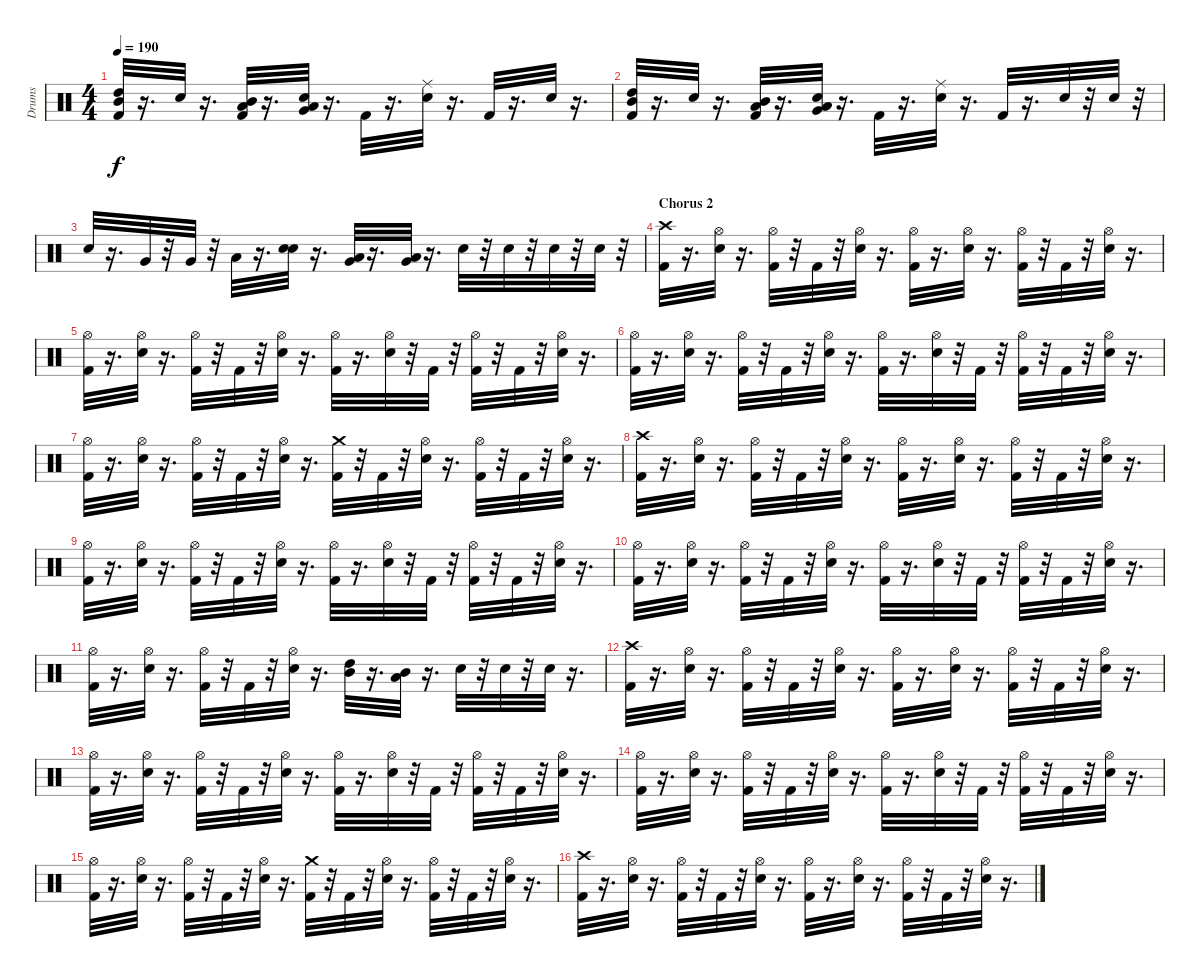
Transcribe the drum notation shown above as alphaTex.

\track ("Drums" "Drums") {instrument percussion}
\staff {score}
\articulation defaults
\ts (4 4)
\tempo 190
\clef neutral
\ks c
("Kick (hit) 2" "Mid Tom (hit)" "High Tom (hit)").32{dy f} r.16{d} "Snare (hit) 2".32 r.16{d} ("Mid Tom (hit)" "Low Tom (hit)" "Kick (hit) 2").32 r.16{d} ("Very Low Tom (hit)" "Low Tom (hit)" "Snare (hit) 2").32 r.16{d} "Kick (hit) 2".32 r.16{d} ("Snare (hit) 2" "Ride (middle)").32 r.16{d} "Kick (hit) 2".32 r.16{d} "Snare (hit) 2".32 r.16{d} |
("High Tom (hit)" "Kick (hit) 2" "Mid Tom (hit)").32 r.16{d} "Snare (hit) 2".32 r.16{d} ("Kick (hit) 2" "Low Tom (hit)" "Mid Tom (hit)").32 r.16{d} ("Snare (hit) 2" "Low Tom (hit)" "Very Low Tom (hit)").32 r.16{d} "Kick (hit) 2".32 r.16{d} ("Ride (middle)" "Snare (hit) 2").32 r.16{d} "Kick (hit) 2".32 r.16{d} "Snare (hit) 2".32 r.32 "Snare (hit) 2".32 r.32 |
"Snare (hit) 2".32 r.16{d} "Very Low Tom (hit)".32 r.32 "Very Low Tom (hit)".32 r.32 "Low Floor Tom (hit)".32 r.16{d} ("Electric Snare (hit)" "Snare (hit) 2").32 r.16{d} ("Very Low Tom (hit)" "Low Floor Tom (hit)").32 r.16{d} ("Very Low Tom (hit)" "Low Floor Tom (hit)").32 r.16{d} "Snare (hit) 2".32 r.32 "Snare (hit) 2".32 r.32 "Snare (hit) 2".32 r.32 "Snare (hit) 2".32 r.32 |
\section ("" "Chorus 2")
("Crash high (hit)" "Kick (hit) 2").32 r.16{d} ("Snare (hit) 2" "Hi-Hat (open)").32 r.16{d} ("Kick (hit) 2" "Hi-Hat (open)").32 r.32 "Kick (hit) 2".32 r.32 ("Hi-Hat (open)" "Snare (hit) 2").32 r.16{d} ("Hi-Hat (open)" "Kick (hit) 2").32 r.16{d} ("Hi-Hat (open)" "Snare (hit) 2").32 r.16{d} ("Hi-Hat (open)" "Kick (hit) 2").32 r.32 "Kick (hit) 2".32 r.32 ("Snare (hit) 2" "Hi-Hat (open)").32 r.16{d} |
("Kick (hit) 2" "Hi-Hat (open)").32 r.16{d} ("Hi-Hat (open)" "Snare (hit) 2").32 r.16{d} ("Kick (hit) 2" "Hi-Hat (open)").32 r.32 "Kick (hit) 2".32 r.32 ("Hi-Hat (open)" "Snare (hit) 2").32 r.16{d} ("Kick (hit) 2" "Hi-Hat (open)").32 r.16{d} ("Hi-Hat (open)" "Snare (hit) 2").32 r.32 "Kick (hit) 2".32 r.32 ("Hi-Hat (open)" "Kick (hit) 2").32 r.32 "Kick (hit) 2".32 r.32 ("Snare (hit) 2" "Hi-Hat (open)").32 r.16{d} |
("Hi-Hat (open)" "Kick (hit) 2").32 r.16{d} ("Snare (hit) 2" "Hi-Hat (open)").32 r.16{d} ("Kick (hit) 2" "Hi-Hat (open)").32 r.32 "Kick (hit) 2".32 r.32 ("Snare (hit) 2" "Hi-Hat (open)").32 r.16{d} ("Kick (hit) 2" "Hi-Hat (open)").32 r.16{d} ("Hi-Hat (open)" "Snare (hit) 2").32 r.32 "Kick (hit) 2".32 r.32 ("Hi-Hat (open)" "Kick (hit) 2").32 r.32 "Kick (hit) 2".32 r.32 ("Snare (hit) 2" "Hi-Hat (open)").32 r.16{d} |
("Kick (hit) 2" "Hi-Hat (open)").32 r.16{d} ("Snare (hit) 2" "Hi-Hat (open)").32 r.16{d} ("Hi-Hat (open)" "Kick (hit) 2").32 r.32 "Kick (hit) 2".32 r.32 ("Snare (hit) 2" "Hi-Hat (open)").32 r.16{d} ("Kick (hit) 2" "Crash medium (hit)").32 r.32 "Kick (hit) 2".32 r.32 ("Snare (hit) 2" "Hi-Hat (open)").32 r.16{d} ("Hi-Hat (open)" "Kick (hit) 2").32 r.32 "Kick (hit) 2".32 r.32 ("Snare (hit) 2" "Hi-Hat (open)").32 r.16{d} |
("Crash high (hit)" "Kick (hit) 2").32 r.16{d} ("Hi-Hat (open)" "Snare (hit) 2").32 r.16{d} ("Hi-Hat (open)" "Kick (hit) 2").32 r.32 "Kick (hit) 2".32 r.32 ("Hi-Hat (open)" "Snare (hit) 2").32 r.16{d} ("Kick (hit) 2" "Hi-Hat (open)").32 r.16{d} ("Snare (hit) 2" "Hi-Hat (open)").32 r.16{d} ("Hi-Hat (open)" "Kick (hit) 2").32 r.32 "Kick (hit) 2".32 r.32 ("Snare (hit) 2" "Hi-Hat (open)").32 r.16{d} |
("Hi-Hat (open)" "Kick (hit) 2").32 r.16{d} ("Snare (hit) 2" "Hi-Hat (open)").32 r.16{d} ("Kick (hit) 2" "Hi-Hat (open)").32 r.32 "Kick (hit) 2".32 r.32 ("Hi-Hat (open)" "Snare (hit) 2").32 r.16{d} ("Kick (hit) 2" "Hi-Hat (open)").32 r.16{d} ("Hi-Hat (open)" "Snare (hit) 2").32 r.32 "Kick (hit) 2".32 r.32 ("Kick (hit) 2" "Hi-Hat (open)").32 r.32 "Kick (hit) 2".32 r.32 ("Snare (hit) 2" "Hi-Hat (open)").32 r.16{d} |
("Kick (hit) 2" "Hi-Hat (open)").32 r.16{d} ("Snare (hit) 2" "Hi-Hat (open)").32 r.16{d} ("Hi-Hat (open)" "Kick (hit) 2").32 r.32 "Kick (hit) 2".32 r.32 ("Snare (hit) 2" "Hi-Hat (open)").32 r.16{d} ("Hi-Hat (open)" "Kick (hit) 2").32 r.16{d} ("Snare (hit) 2" "Hi-Hat (open)").32 r.32 "Kick (hit) 2".32 r.32 ("Hi-Hat (open)" "Kick (hit) 2").32 r.32 "Kick (hit) 2".32 r.32 ("Snare (hit) 2" "Hi-Hat (open)").32 r.16{d} |
("Hi-Hat (open)" "Kick (hit) 2").32 r.16{d} ("Snare (hit) 2" "Hi-Hat (open)").32 r.16{d} ("Hi-Hat (open)" "Kick (hit) 2").32 r.32 "Kick (hit) 2".32 r.32 ("Hi-Hat (open)" "Snare (hit) 2").32 r.16{d} ("Mid Tom (hit)" "High Tom (hit)").32 r.16{d} ("Low Tom (hit)" "Mid Tom (hit)").32 r.16{d} "Snare (hit) 2".32 r.32 "Snare (hit) 2".32 r.32 "Snare (hit) 2".32 r.16{d} |
("Crash high (hit)" "Kick (hit) 2").32 r.16{d} ("Snare (hit) 2" "Hi-Hat (open)").32 r.16{d} ("Hi-Hat (open)" "Kick (hit) 2").32 r.32 "Kick (hit) 2".32 r.32 ("Hi-Hat (open)" "Snare (hit) 2").32 r.16{d} ("Kick (hit) 2" "Hi-Hat (open)").32 r.16{d} ("Hi-Hat (open)" "Snare (hit) 2").32 r.16{d} ("Hi-Hat (open)" "Kick (hit) 2").32 r.32 "Kick (hit) 2".32 r.32 ("Hi-Hat (open)" "Snare (hit) 2").32 r.16{d} |
("Hi-Hat (open)" "Kick (hit) 2").32 r.16{d} ("Hi-Hat (open)" "Snare (hit) 2").32 r.16{d} ("Hi-Hat (open)" "Kick (hit) 2").32 r.32 "Kick (hit) 2".32 r.32 ("Hi-Hat (open)" "Snare (hit) 2").32 r.16{d} ("Kick (hit) 2" "Hi-Hat (open)").32 r.16{d} ("Snare (hit) 2" "Hi-Hat (open)").32 r.32 "Kick (hit) 2".32 r.32 ("Hi-Hat (open)" "Kick (hit) 2").32 r.32 "Kick (hit) 2".32 r.32 ("Hi-Hat (open)" "Snare (hit) 2").32 r.16{d} |
("Kick (hit) 2" "Hi-Hat (open)").32 r.16{d} ("Snare (hit) 2" "Hi-Hat (open)").32 r.16{d} ("Kick (hit) 2" "Hi-Hat (open)").32 r.32 "Kick (hit) 2".32 r.32 ("Hi-Hat (open)" "Snare (hit) 2").32 r.16{d} ("Hi-Hat (open)" "Kick (hit) 2").32 r.16{d} ("Hi-Hat (open)" "Snare (hit) 2").32 r.32 "Kick (hit) 2".32 r.32 ("Kick (hit) 2" "Hi-Hat (open)").32 r.32 "Kick (hit) 2".32 r.32 ("Hi-Hat (open)" "Snare (hit) 2").32 r.16{d} |
("Hi-Hat (open)" "Kick (hit) 2").32 r.16{d} ("Snare (hit) 2" "Hi-Hat (open)").32 r.16{d} ("Kick (hit) 2" "Hi-Hat (open)").32 r.32 "Kick (hit) 2".32 r.32 ("Hi-Hat (open)" "Snare (hit) 2").32 r.16{d} ("Kick (hit) 2" "Crash medium (hit)").32 r.32 "Kick (hit) 2".32 r.32 ("Hi-Hat (open)" "Snare (hit) 2").32 r.16{d} ("Kick (hit) 2" "Hi-Hat (open)").32 r.32 "Kick (hit) 2".32 r.32 ("Hi-Hat (open)" "Snare (hit) 2").32 r.16{d} |
("Kick (hit) 2" "Crash high (hit)").32 r.16{d} ("Hi-Hat (open)" "Snare (hit) 2").32 r.16{d} ("Hi-Hat (open)" "Kick (hit) 2").32 r.32 "Kick (hit) 2".32 r.32 ("Hi-Hat (open)" "Snare (hit) 2").32 r.16{d} ("Kick (hit) 2" "Hi-Hat (open)").32 r.16{d} ("Snare (hit) 2" "Hi-Hat (open)").32 r.16{d} ("Hi-Hat (open)" "Kick (hit) 2").32 r.32 "Kick (hit) 2".32 r.32 ("Hi-Hat (open)" "Snare (hit) 2").32 r.16{d}
